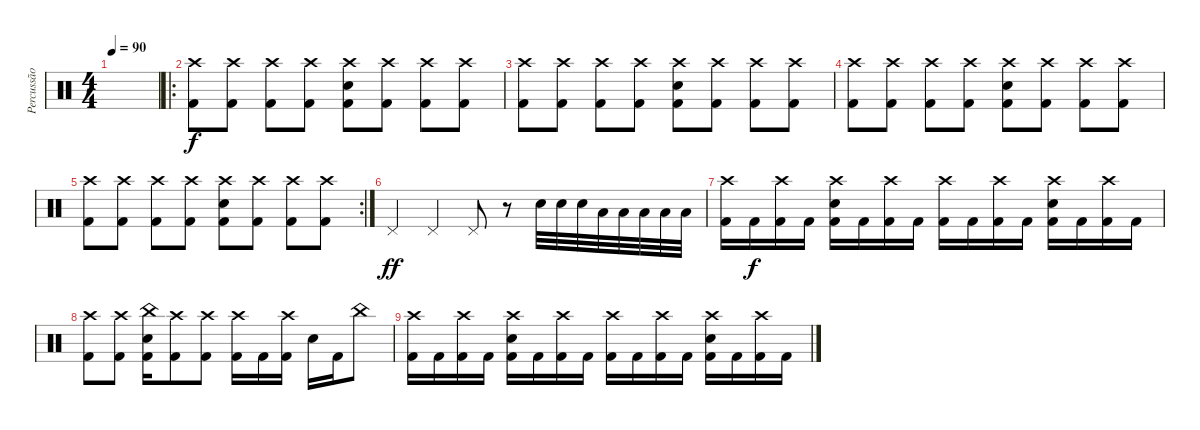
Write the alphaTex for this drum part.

\track ("Percussão" "Percussão") {instrument percussion}
\staff {score}
\articulation defaults
\ts (4 4)
\tempo 90
\clef neutral
\ks c
|
\ro
("Crash high (hit)" "Kick (hit) 2").8 ("Crash high (hit)" "Kick (hit) 2").8 ("Crash high (hit)" "Kick (hit) 2").8 ("Crash high (hit)" "Kick (hit) 2").8 ("Crash high (hit)" "Kick (hit) 2" "Snare (hit) 2").8 ("Crash high (hit)" "Kick (hit) 2").8 ("Crash high (hit)" "Kick (hit) 2").8 ("Crash high (hit)" "Kick (hit) 2").8 |
("Crash high (hit)" "Kick (hit) 2").8 ("Crash high (hit)" "Kick (hit) 2").8 ("Crash high (hit)" "Kick (hit) 2").8 ("Crash high (hit)" "Kick (hit) 2").8 ("Crash high (hit)" "Kick (hit) 2" "Snare (hit) 2").8 ("Crash high (hit)" "Kick (hit) 2").8 ("Crash high (hit)" "Kick (hit) 2").8 ("Crash high (hit)" "Kick (hit) 2").8 |
("Crash high (hit)" "Kick (hit) 2").8 ("Crash high (hit)" "Kick (hit) 2").8 ("Crash high (hit)" "Kick (hit) 2").8 ("Crash high (hit)" "Kick (hit) 2").8 ("Crash high (hit)" "Kick (hit) 2" "Snare (hit) 2").8 ("Crash high (hit)" "Kick (hit) 2").8 ("Crash high (hit)" "Kick (hit) 2").8 ("Crash high (hit)" "Kick (hit) 2").8 |
\rc 2
("Crash high (hit)" "Kick (hit) 2").8 ("Crash high (hit)" "Kick (hit) 2").8 ("Crash high (hit)" "Kick (hit) 2").8 ("Crash high (hit)" "Kick (hit) 2").8 ("Crash high (hit)" "Kick (hit) 2" "Snare (hit) 2").8 ("Crash high (hit)" "Kick (hit) 2").8 ("Crash high (hit)" "Kick (hit) 2").8 ("Crash high (hit)" "Kick (hit) 2").8 |
"Pedal Hi-Hat (hit)".4{dy ff} "Pedal Hi-Hat (hit)".4 "Pedal Hi-Hat (hit)".8 r.8 "Snare (hit) 2".32 "Snare (hit) 2".32 "Snare (hit) 2".32 "Low Tom (hit)".32 "Low Tom (hit)".32 "Low Tom (hit)".32 "Low Tom (hit)".32 "Low Tom (hit)".32 |
("Crash high (hit)" "Kick (hit) 2").16 "Kick (hit) 2".16{dy f} ("Crash high (hit)" "Kick (hit) 2").16 "Kick (hit) 2".16 ("Crash high (hit)" "Snare (hit) 2" "Kick (hit) 2").16 "Kick (hit) 2".16 ("Crash high (hit)" "Kick (hit) 2").16 "Kick (hit) 2".16 ("Crash high (hit)" "Kick (hit) 2").16 "Kick (hit) 2".16 ("Crash high (hit)" "Kick (hit) 2").16 "Kick (hit) 2".16 ("Crash high (hit)" "Snare (hit) 2" "Kick (hit) 2").16 "Kick (hit) 2".16 ("Crash high (hit)" "Kick (hit) 2").16 "Kick (hit) 2".16 |
("Crash high (hit)" "Kick (hit) 2").8 ("Crash high (hit)" "Kick (hit) 2").8 ("Snare (hit) 2" "China (hit)" "Kick (hit) 2").16 ("Crash high (hit)" "Kick (hit) 2").8 ("Crash high (hit)" "Kick (hit) 2").8 ("Crash high (hit)" "Kick (hit) 2").16 "Kick (hit) 2".16 ("Crash high (hit)" "Kick (hit) 2").16 "Snare (hit) 2".16 "Kick (hit) 2".16 "China (hit)".8 |
("Crash high (hit)" "Kick (hit) 2").16 "Kick (hit) 2".16 ("Crash high (hit)" "Kick (hit) 2").16 "Kick (hit) 2".16 ("Crash high (hit)" "Snare (hit) 2" "Kick (hit) 2").16 "Kick (hit) 2".16 ("Crash high (hit)" "Kick (hit) 2").16 "Kick (hit) 2".16 ("Crash high (hit)" "Kick (hit) 2").16 "Kick (hit) 2".16 ("Crash high (hit)" "Kick (hit) 2").16 "Kick (hit) 2".16 ("Crash high (hit)" "Snare (hit) 2" "Kick (hit) 2").16 "Kick (hit) 2".16 ("Crash high (hit)" "Kick (hit) 2").16 "Kick (hit) 2".16
